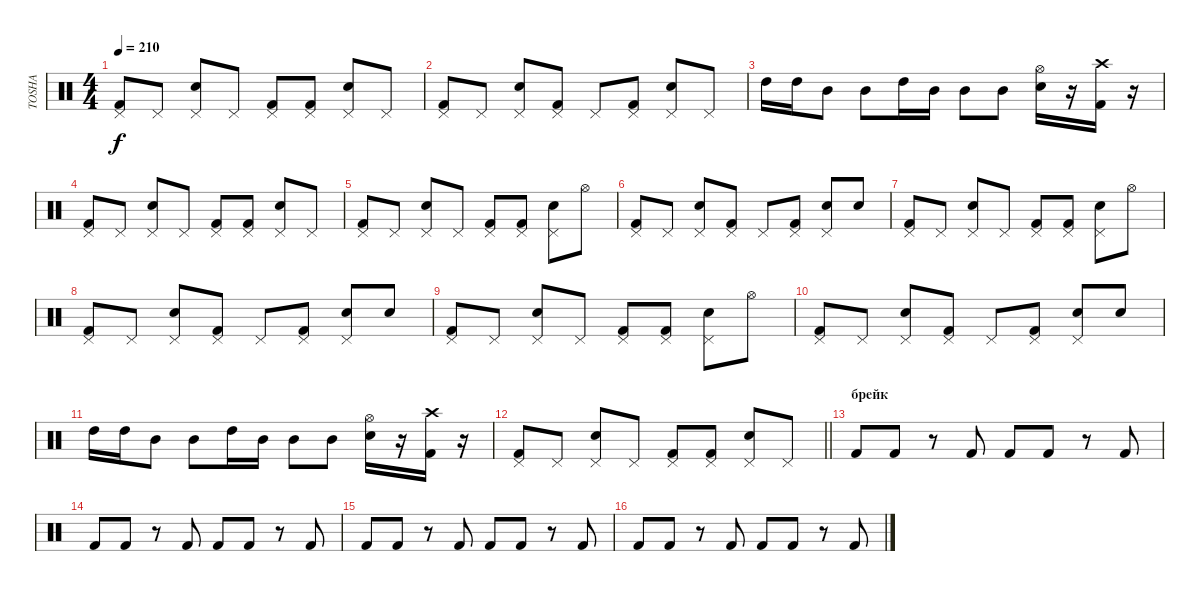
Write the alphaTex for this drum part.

\track ("TOSHA" "TOSHA") {instrument percussion}
\staff {score}
\articulation defaults
\ts (4 4)
\tempo 210
\clef neutral
\ks c
("Kick (hit) 2" "Pedal Hi-Hat (hit)").8{dy f} "Pedal Hi-Hat (hit)".8 ("Electric Snare (hit)" "Pedal Hi-Hat (hit)").8 "Pedal Hi-Hat (hit)".8 ("Kick (hit) 2" "Pedal Hi-Hat (hit)").8 ("Kick (hit) 2" "Pedal Hi-Hat (hit)").8 ("Electric Snare (hit)" "Pedal Hi-Hat (hit)").8 "Pedal Hi-Hat (hit)".8 |
("Kick (hit) 2" "Pedal Hi-Hat (hit)").8 "Pedal Hi-Hat (hit)".8 ("Electric Snare (hit)" "Pedal Hi-Hat (hit)").8 ("Kick (hit) 2" "Pedal Hi-Hat (hit)").8 "Pedal Hi-Hat (hit)".8 ("Kick (hit) 2" "Pedal Hi-Hat (hit)").8 ("Electric Snare (hit)" "Pedal Hi-Hat (hit)").8 "Pedal Hi-Hat (hit)".8 |
"High Tom (hit)".16 "High Tom (hit)".16 "Mid Tom (hit)".8 "Mid Tom (hit)".8 "High Tom (hit)".16 "Mid Tom (hit)".16 "Mid Tom (hit)".8 "Mid Tom (hit)".8 ("Electric Snare (hit)" "Hi-Hat (open)").16 r.16 ("Kick (hit) 2" "Crash high (hit)").16 r.16 |
("Kick (hit) 2" "Pedal Hi-Hat (hit)").8 "Pedal Hi-Hat (hit)".8 ("Electric Snare (hit)" "Pedal Hi-Hat (hit)").8 "Pedal Hi-Hat (hit)".8 ("Kick (hit) 2" "Pedal Hi-Hat (hit)").8 ("Kick (hit) 2" "Pedal Hi-Hat (hit)").8 ("Electric Snare (hit)" "Pedal Hi-Hat (hit)").8 "Pedal Hi-Hat (hit)".8 |
("Kick (hit) 2" "Pedal Hi-Hat (hit)").8 "Pedal Hi-Hat (hit)".8 ("Electric Snare (hit)" "Pedal Hi-Hat (hit)").8 "Pedal Hi-Hat (hit)".8 ("Kick (hit) 2" "Pedal Hi-Hat (hit)").8 ("Kick (hit) 2" "Pedal Hi-Hat (hit)").8 ("Electric Snare (hit)" "Pedal Hi-Hat (hit)").8 "Hi-Hat (open)".8 |
("Kick (hit) 2" "Pedal Hi-Hat (hit)").8 "Pedal Hi-Hat (hit)".8 ("Electric Snare (hit)" "Pedal Hi-Hat (hit)").8 ("Kick (hit) 2" "Pedal Hi-Hat (hit)").8 "Pedal Hi-Hat (hit)".8 ("Kick (hit) 2" "Pedal Hi-Hat (hit)").8 ("Electric Snare (hit)" "Pedal Hi-Hat (hit)").8 "Electric Snare (hit)".8 |
("Kick (hit) 2" "Pedal Hi-Hat (hit)").8 "Pedal Hi-Hat (hit)".8 ("Electric Snare (hit)" "Pedal Hi-Hat (hit)").8 "Pedal Hi-Hat (hit)".8 ("Kick (hit) 2" "Pedal Hi-Hat (hit)").8 ("Kick (hit) 2" "Pedal Hi-Hat (hit)").8 ("Electric Snare (hit)" "Pedal Hi-Hat (hit)").8 "Hi-Hat (open)".8 |
("Kick (hit) 2" "Pedal Hi-Hat (hit)").8 "Pedal Hi-Hat (hit)".8 ("Electric Snare (hit)" "Pedal Hi-Hat (hit)").8 ("Kick (hit) 2" "Pedal Hi-Hat (hit)").8 "Pedal Hi-Hat (hit)".8 ("Kick (hit) 2" "Pedal Hi-Hat (hit)").8 ("Electric Snare (hit)" "Pedal Hi-Hat (hit)").8 "Electric Snare (hit)".8 |
("Kick (hit) 2" "Pedal Hi-Hat (hit)").8 "Pedal Hi-Hat (hit)".8 ("Electric Snare (hit)" "Pedal Hi-Hat (hit)").8 "Pedal Hi-Hat (hit)".8 ("Kick (hit) 2" "Pedal Hi-Hat (hit)").8 ("Kick (hit) 2" "Pedal Hi-Hat (hit)").8 ("Electric Snare (hit)" "Pedal Hi-Hat (hit)").8 "Hi-Hat (open)".8 |
("Kick (hit) 2" "Pedal Hi-Hat (hit)").8 "Pedal Hi-Hat (hit)".8 ("Electric Snare (hit)" "Pedal Hi-Hat (hit)").8 ("Kick (hit) 2" "Pedal Hi-Hat (hit)").8 "Pedal Hi-Hat (hit)".8 ("Kick (hit) 2" "Pedal Hi-Hat (hit)").8 ("Electric Snare (hit)" "Pedal Hi-Hat (hit)").8 "Electric Snare (hit)".8 |
"High Tom (hit)".16 "High Tom (hit)".16 "Mid Tom (hit)".8 "Mid Tom (hit)".8 "High Tom (hit)".16 "Mid Tom (hit)".16 "Mid Tom (hit)".8 "Mid Tom (hit)".8 ("Electric Snare (hit)" "Hi-Hat (open)").16 r.16 ("Kick (hit) 2" "Crash high (hit)").16 r.16 |
\barLineRight lightlight
("Kick (hit) 2" "Pedal Hi-Hat (hit)").8 "Pedal Hi-Hat (hit)".8 ("Electric Snare (hit)" "Pedal Hi-Hat (hit)").8 "Pedal Hi-Hat (hit)".8 ("Kick (hit) 2" "Pedal Hi-Hat (hit)").8 ("Kick (hit) 2" "Pedal Hi-Hat (hit)").8 ("Electric Snare (hit)" "Pedal Hi-Hat (hit)").8 "Pedal Hi-Hat (hit)".8 |
\section ("" "брейк")
"Kick (hit) 2".8 "Kick (hit) 2".8 r.8 "Kick (hit) 2".8 "Kick (hit) 2".8 "Kick (hit) 2".8 r.8 "Kick (hit) 2".8 |
"Kick (hit) 2".8 "Kick (hit) 2".8 r.8 "Kick (hit) 2".8 "Kick (hit) 2".8 "Kick (hit) 2".8 r.8 "Kick (hit) 2".8 |
"Kick (hit) 2".8 "Kick (hit) 2".8 r.8 "Kick (hit) 2".8 "Kick (hit) 2".8 "Kick (hit) 2".8 r.8 "Kick (hit) 2".8 |
"Kick (hit) 2".8 "Kick (hit) 2".8 r.8 "Kick (hit) 2".8 "Kick (hit) 2".8 "Kick (hit) 2".8 r.8 "Kick (hit) 2".8
